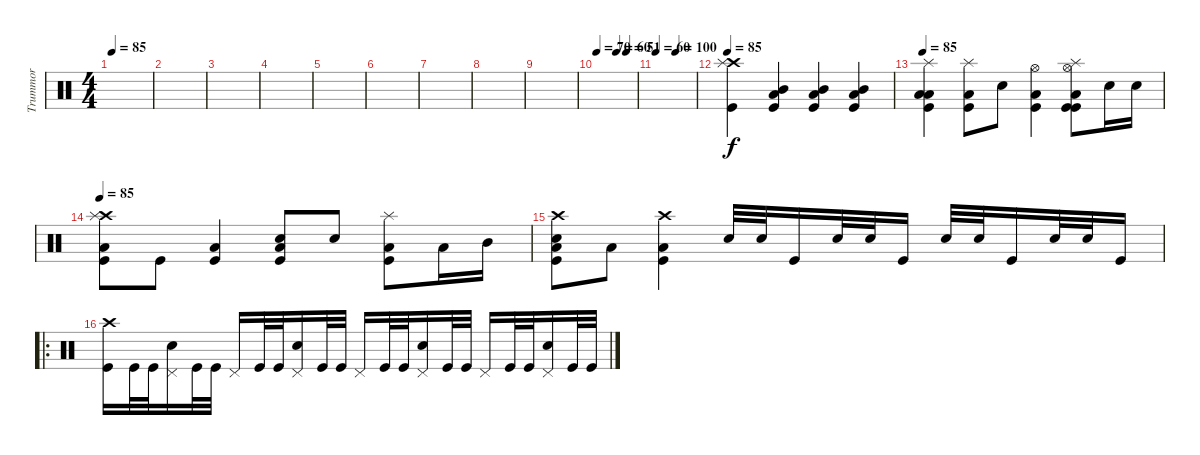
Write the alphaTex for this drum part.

\track ("Trummor" "Trummor") {instrument percussion}
\staff {score}
\articulation defaults
\ts (4 4)
\tempo 85
\clef neutral
\ks c
|
|
|
|
|
|
|
|
|
\tempo 70
\tempo (60 0.5)
\tempo (51 0.75)
|
\tempo 60
\tempo (100 0.5)
|
\tempo 85
("Crash high (hit)" "Splash (hit)" "Kick (hit)").4 ("Low Tom (hit)" "Mid Tom (hit)" "Kick (hit)").4 ("Low Tom (hit)" "Mid Tom (hit)" "Kick (hit)").4 ("Low Tom (hit)" "Mid Tom (hit)" "Kick (hit)").4 |
\tempo 85
("Splash (hit)" "Low Tom (hit)" "Low Tom (hit)" "Kick (hit)").4 ("Splash (hit)" "Low Tom (hit)" "Kick (hit)").8 "Snare (hit) 2".8 ("Hi-Hat (open)" "Low Tom (hit)" "Kick (hit)").4 ("Splash (hit)" "Hi-Hat (open)" "Kick (hit)" "Low Tom (hit)" "Kick (hit)").8 "Snare (hit) 2".16 "Snare (hit) 2".16 |
\tempo 85
("Crash high (hit)" "Splash (hit)" "Low Tom (hit)" "Kick (hit)").8 "Kick (hit)".8 ("Low Tom (hit)" "Kick (hit)").4 ("Snare (hit) 2" "Low Tom (hit)" "Kick (hit)").8 "Snare (hit) 2".8 ("Splash (hit)" "Low Tom (hit)" "Kick (hit)").8 "Low Tom (hit)".16 "Mid Tom (hit)".16 |
("Crash high (hit)" "Snare (hit) 2" "Low Tom (hit)" "Kick (hit)").8 "Low Tom (hit)".8 ("Crash high (hit)" "Low Tom (hit)" "Kick (hit)").4 "Snare (hit) 2".32 "Snare (hit) 2".32 "Kick (hit)".16 "Snare (hit) 2".32 "Snare (hit) 2".32 "Kick (hit)".16 "Snare (hit) 2".32 "Snare (hit) 2".32 "Kick (hit)".16 "Snare (hit) 2".32 "Snare (hit) 2".32 "Kick (hit)".16 |
\ro
("Crash high (hit)" "Kick (hit)").16 "Kick (hit)".32 "Kick (hit)".32 ("Pedal Hi-Hat (hit)" "Snare (hit) 2").16 "Kick (hit)".32 "Kick (hit)".32 "Pedal Hi-Hat (hit)".16 "Kick (hit)".32 "Kick (hit)".32 ("Pedal Hi-Hat (hit)" "Snare (hit) 2").16 "Kick (hit)".32 "Kick (hit)".32 "Pedal Hi-Hat (hit)".16 "Kick (hit)".32 "Kick (hit)".32 ("Pedal Hi-Hat (hit)" "Snare (hit) 2").16 "Kick (hit)".32 "Kick (hit)".32 "Pedal Hi-Hat (hit)".16 "Kick (hit)".32 "Kick (hit)".32 ("Pedal Hi-Hat (hit)" "Snare (hit) 2").16 "Kick (hit)".32 "Kick (hit)".32
